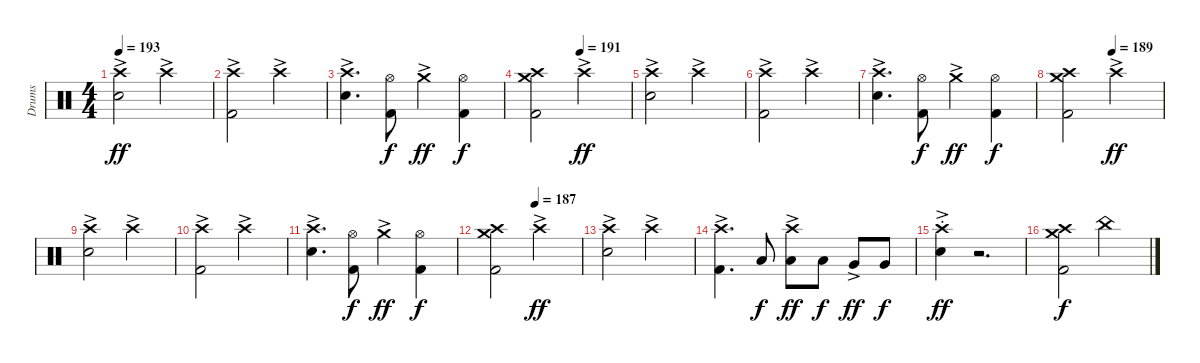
\track ("Drums" "Drums") {instrument percussion}
\staff {score}
\articulation defaults
\ts (4 4)
\tempo 193
\clef neutral
\ks c
("Crash high (hit)"{ac} "Electric Snare (hit)").2{dy ff} "Crash high (hit)"{ac}.2 |
("Crash high (hit)" "Kick (hit) 2"{ac}).2 "Crash high (hit)"{ac}.2 |
("Crash high (hit)"{ac} "Electric Snare (hit)").4{d} ("Hi-Hat (open)" "Kick (hit) 2").8{dy f} "Crash medium (hit)"{ac}.4{dy ff} ("Hi-Hat (open)" "Kick (hit) 2").4{dy f} |
\tempo (191 0.5)
("Crash medium (hit)" "Crash high (hit)" "Kick (hit) 2").2 "Crash high (hit)"{ac}.2{dy ff} |
("Crash high (hit)"{ac} "Electric Snare (hit)").2 "Crash high (hit)"{ac}.2 |
("Crash high (hit)" "Kick (hit) 2"{ac}).2 "Crash high (hit)"{ac}.2 |
("Crash high (hit)"{ac} "Electric Snare (hit)").4{d} ("Hi-Hat (open)" "Kick (hit) 2").8{dy f} "Crash medium (hit)"{ac}.4{dy ff} ("Hi-Hat (open)" "Kick (hit) 2").4{dy f} |
\tempo (189 0.5)
("Crash medium (hit)" "Crash high (hit)" "Kick (hit) 2").2 "Crash high (hit)"{ac}.2{dy ff} |
("Crash high (hit)"{ac} "Electric Snare (hit)").2 "Crash high (hit)"{ac}.2 |
("Crash high (hit)" "Kick (hit) 2"{ac}).2 "Crash high (hit)"{ac}.2 |
("Crash high (hit)"{ac} "Electric Snare (hit)").4{d} ("Hi-Hat (open)" "Kick (hit) 2").8{dy f} "Crash medium (hit)"{ac}.4{dy ff} ("Hi-Hat (open)" "Kick (hit) 2").4{dy f} |
\tempo (187 0.5)
("Crash medium (hit)" "Crash high (hit)" "Kick (hit) 2").2 "Crash high (hit)"{ac}.2{dy ff} |
("Crash high (hit)"{ac} "Electric Snare (hit)").2 "Crash high (hit)"{ac}.2 |
("Crash high (hit)"{ac} "Kick (hit) 2").4{d} "Low Tom (hit)".8{dy f} ("Crash high (hit)"{ac} "Low Tom (hit)"{ac}).8{dy ff} "Low Tom (hit)".8{dy f} "Very Low Tom (hit)"{ac}.8{dy ff} "Very Low Tom (hit)".8{dy f} |
("Crash high (hit)"{ac st} "Electric Snare (hit)").4{dy ff} r.2{d volume 0} |
("Crash medium (hit)" "Crash high (hit)" "Kick (hit) 2").2{dy f volume 14} "China (hit)".2
